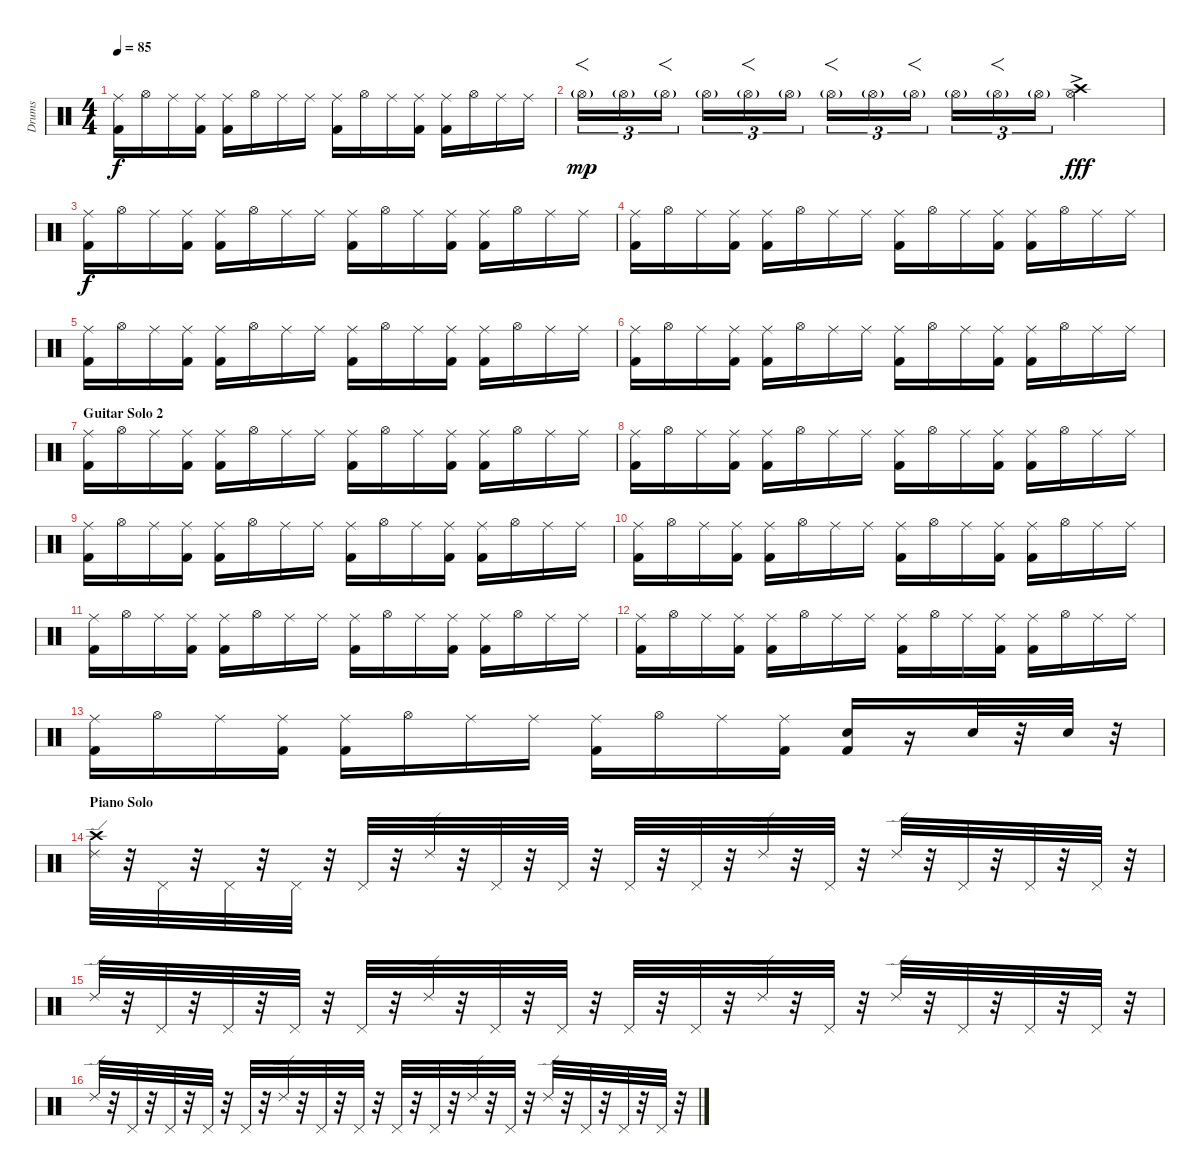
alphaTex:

\track ("Drums" "Drums") {instrument percussion}
\staff {score}
\articulation defaults
\ts (4 4)
\tempo 85
\clef neutral
\ks c
("Ride (middle)" "Kick (hit) 2").16{dy f} "Hi-Hat (open)".16 "Ride (middle)".16 ("Ride (middle)" "Kick (hit) 2").16 ("Ride (middle)" "Kick (hit) 2").16 "Hi-Hat (open)".16 "Ride (middle)".16 "Ride (middle)".16 ("Ride (middle)" "Kick (hit) 2").16 "Hi-Hat (open)".16 "Ride (middle)".16 ("Ride (middle)" "Kick (hit) 2").16 ("Ride (middle)" "Kick (hit) 2").16 "Hi-Hat (open)".16 "Ride (middle)".16 "Ride (middle)".16 |
"Hi-Hat (open)"{g}.16{f tu (3 2) dy mp} "Hi-Hat (open)"{g}.16{tu (3 2)} "Hi-Hat (open)"{g}.16{f tu (3 2)} "Hi-Hat (open)"{g}.16{tu (3 2)} "Hi-Hat (open)"{g}.16{f tu (3 2)} "Hi-Hat (open)"{g}.16{tu (3 2)} "Hi-Hat (open)"{g}.16{f tu (3 2)} "Hi-Hat (open)"{g}.16{tu (3 2)} "Hi-Hat (open)"{g}.16{f tu (3 2)} "Hi-Hat (open)"{g}.16{tu (3 2)} "Hi-Hat (open)"{g}.16{f tu (3 2)} "Hi-Hat (open)"{g}.16{tu (3 2)} ("Crash high (hit)"{ac} "Hi-Hat (open)"{ac}).2{dy fff} |
("Ride (middle)" "Kick (hit) 2").16{dy f} "Hi-Hat (open)".16 "Ride (middle)".16 ("Ride (middle)" "Kick (hit) 2").16 ("Ride (middle)" "Kick (hit) 2").16 "Hi-Hat (open)".16 "Ride (middle)".16 "Ride (middle)".16 ("Ride (middle)" "Kick (hit) 2").16 "Hi-Hat (open)".16 "Ride (middle)".16 ("Ride (middle)" "Kick (hit) 2").16 ("Ride (middle)" "Kick (hit) 2").16 "Hi-Hat (open)".16 "Ride (middle)".16 "Ride (middle)".16 |
("Ride (middle)" "Kick (hit) 2").16 "Hi-Hat (open)".16 "Ride (middle)".16 ("Ride (middle)" "Kick (hit) 2").16 ("Ride (middle)" "Kick (hit) 2").16 "Hi-Hat (open)".16 "Ride (middle)".16 "Ride (middle)".16 ("Ride (middle)" "Kick (hit) 2").16 "Hi-Hat (open)".16 "Ride (middle)".16 ("Ride (middle)" "Kick (hit) 2").16 ("Ride (middle)" "Kick (hit) 2").16 "Hi-Hat (open)".16 "Ride (middle)".16 "Ride (middle)".16 |
("Ride (middle)" "Kick (hit) 2").16 "Hi-Hat (open)".16 "Ride (middle)".16 ("Ride (middle)" "Kick (hit) 2").16 ("Ride (middle)" "Kick (hit) 2").16 "Hi-Hat (open)".16 "Ride (middle)".16 "Ride (middle)".16 ("Ride (middle)" "Kick (hit) 2").16 "Hi-Hat (open)".16 "Ride (middle)".16 ("Ride (middle)" "Kick (hit) 2").16 ("Ride (middle)" "Kick (hit) 2").16 "Hi-Hat (open)".16 "Ride (middle)".16 "Ride (middle)".16 |
("Ride (middle)" "Kick (hit) 2").16 "Hi-Hat (open)".16 "Ride (middle)".16 ("Ride (middle)" "Kick (hit) 2").16 ("Ride (middle)" "Kick (hit) 2").16 "Hi-Hat (open)".16 "Ride (middle)".16 "Ride (middle)".16 ("Ride (middle)" "Kick (hit) 2").16 "Hi-Hat (open)".16 "Ride (middle)".16 ("Ride (middle)" "Kick (hit) 2").16 ("Ride (middle)" "Kick (hit) 2").16 "Hi-Hat (open)".16 "Ride (middle)".16 "Ride (middle)".16 |
\section ("" "Guitar Solo 2")
("Ride (middle)" "Kick (hit) 2").16 "Hi-Hat (open)".16 "Ride (middle)".16 ("Ride (middle)" "Kick (hit) 2").16 ("Ride (middle)" "Kick (hit) 2").16 "Hi-Hat (open)".16 "Ride (middle)".16 "Ride (middle)".16 ("Ride (middle)" "Kick (hit) 2").16 "Hi-Hat (open)".16 "Ride (middle)".16 ("Ride (middle)" "Kick (hit) 2").16 ("Ride (middle)" "Kick (hit) 2").16 "Hi-Hat (open)".16 "Ride (middle)".16 "Ride (middle)".16 |
("Ride (middle)" "Kick (hit) 2").16 "Hi-Hat (open)".16 "Ride (middle)".16 ("Ride (middle)" "Kick (hit) 2").16 ("Ride (middle)" "Kick (hit) 2").16 "Hi-Hat (open)".16 "Ride (middle)".16 "Ride (middle)".16 ("Ride (middle)" "Kick (hit) 2").16 "Hi-Hat (open)".16 "Ride (middle)".16 ("Ride (middle)" "Kick (hit) 2").16 ("Ride (middle)" "Kick (hit) 2").16 "Hi-Hat (open)".16 "Ride (middle)".16 "Ride (middle)".16 |
("Ride (middle)" "Kick (hit) 2").16 "Hi-Hat (open)".16 "Ride (middle)".16 ("Ride (middle)" "Kick (hit) 2").16 ("Ride (middle)" "Kick (hit) 2").16 "Hi-Hat (open)".16 "Ride (middle)".16 "Ride (middle)".16 ("Ride (middle)" "Kick (hit) 2").16 "Hi-Hat (open)".16 "Ride (middle)".16 ("Ride (middle)" "Kick (hit) 2").16 ("Ride (middle)" "Kick (hit) 2").16 "Hi-Hat (open)".16 "Ride (middle)".16 "Ride (middle)".16 |
("Ride (middle)" "Kick (hit) 2").16 "Hi-Hat (open)".16 "Ride (middle)".16 ("Ride (middle)" "Kick (hit) 2").16 ("Ride (middle)" "Kick (hit) 2").16 "Hi-Hat (open)".16 "Ride (middle)".16 "Ride (middle)".16 ("Ride (middle)" "Kick (hit) 2").16 "Hi-Hat (open)".16 "Ride (middle)".16 ("Ride (middle)" "Kick (hit) 2").16 ("Ride (middle)" "Kick (hit) 2").16 "Hi-Hat (open)".16 "Ride (middle)".16 "Ride (middle)".16 |
("Ride (middle)" "Kick (hit) 2").16 "Hi-Hat (open)".16 "Ride (middle)".16 ("Ride (middle)" "Kick (hit) 2").16 ("Ride (middle)" "Kick (hit) 2").16 "Hi-Hat (open)".16 "Ride (middle)".16 "Ride (middle)".16 ("Ride (middle)" "Kick (hit) 2").16 "Hi-Hat (open)".16 "Ride (middle)".16 ("Ride (middle)" "Kick (hit) 2").16 ("Ride (middle)" "Kick (hit) 2").16 "Hi-Hat (open)".16 "Ride (middle)".16 "Ride (middle)".16 |
("Ride (middle)" "Kick (hit) 2").16 "Hi-Hat (open)".16 "Ride (middle)".16 ("Ride (middle)" "Kick (hit) 2").16 ("Ride (middle)" "Kick (hit) 2").16 "Hi-Hat (open)".16 "Ride (middle)".16 "Ride (middle)".16 ("Ride (middle)" "Kick (hit) 2").16 "Hi-Hat (open)".16 "Ride (middle)".16 ("Ride (middle)" "Kick (hit) 2").16 ("Ride (middle)" "Kick (hit) 2").16 "Hi-Hat (open)".16 "Ride (middle)".16 "Ride (middle)".16 |
("Ride (middle)" "Kick (hit) 2").16 "Hi-Hat (open)".16 "Ride (middle)".16 ("Ride (middle)" "Kick (hit) 2").16 ("Ride (middle)" "Kick (hit) 2").16 "Hi-Hat (open)".16 "Ride (middle)".16 "Ride (middle)".16 ("Ride (middle)" "Kick (hit) 2").16 "Hi-Hat (open)".16 "Ride (middle)".16 ("Ride (middle)" "Kick (hit) 2").16 ("Electric Snare (hit)" "Kick (hit) 2").16 r.16 "Electric Snare (hit)".32 r.32 "Electric Snare (hit)".32 r.32 |
\section ("" "Piano Solo")
("Ride (edge) 2" "Crash high (hit)").32 r.32 "Pedal Hi-Hat (hit)".32 r.32 "Pedal Hi-Hat (hit)".32 r.32 "Pedal Hi-Hat (hit)".32 r.32 "Pedal Hi-Hat (hit)".32 r.32 "Ride (edge) 2".32 r.32 "Pedal Hi-Hat (hit)".32 r.32 "Pedal Hi-Hat (hit)".32 r.32 "Pedal Hi-Hat (hit)".32 r.32 "Pedal Hi-Hat (hit)".32 r.32 "Ride (edge) 2".32 r.32 "Pedal Hi-Hat (hit)".32 r.32 "Ride (edge) 2".32 r.32 "Pedal Hi-Hat (hit)".32 r.32 "Pedal Hi-Hat (hit)".32 r.32 "Pedal Hi-Hat (hit)".32 r.32 |
"Ride (edge) 2".32 r.32 "Pedal Hi-Hat (hit)".32 r.32 "Pedal Hi-Hat (hit)".32 r.32 "Pedal Hi-Hat (hit)".32 r.32 "Pedal Hi-Hat (hit)".32 r.32 "Ride (edge) 2".32 r.32 "Pedal Hi-Hat (hit)".32 r.32 "Pedal Hi-Hat (hit)".32 r.32 "Pedal Hi-Hat (hit)".32 r.32 "Pedal Hi-Hat (hit)".32 r.32 "Ride (edge) 2".32 r.32 "Pedal Hi-Hat (hit)".32 r.32 "Ride (edge) 2".32 r.32 "Pedal Hi-Hat (hit)".32 r.32 "Pedal Hi-Hat (hit)".32 r.32 "Pedal Hi-Hat (hit)".32 r.32 |
"Ride (edge) 2".32 r.32 "Pedal Hi-Hat (hit)".32 r.32 "Pedal Hi-Hat (hit)".32 r.32 "Pedal Hi-Hat (hit)".32 r.32 "Pedal Hi-Hat (hit)".32 r.32 "Ride (edge) 2".32 r.32 "Pedal Hi-Hat (hit)".32 r.32 "Pedal Hi-Hat (hit)".32 r.32 "Pedal Hi-Hat (hit)".32 r.32 "Pedal Hi-Hat (hit)".32 r.32 "Ride (edge) 2".32 r.32 "Pedal Hi-Hat (hit)".32 r.32 "Ride (edge) 2".32 r.32 "Pedal Hi-Hat (hit)".32 r.32 "Pedal Hi-Hat (hit)".32 r.32 "Pedal Hi-Hat (hit)".32 r.32
